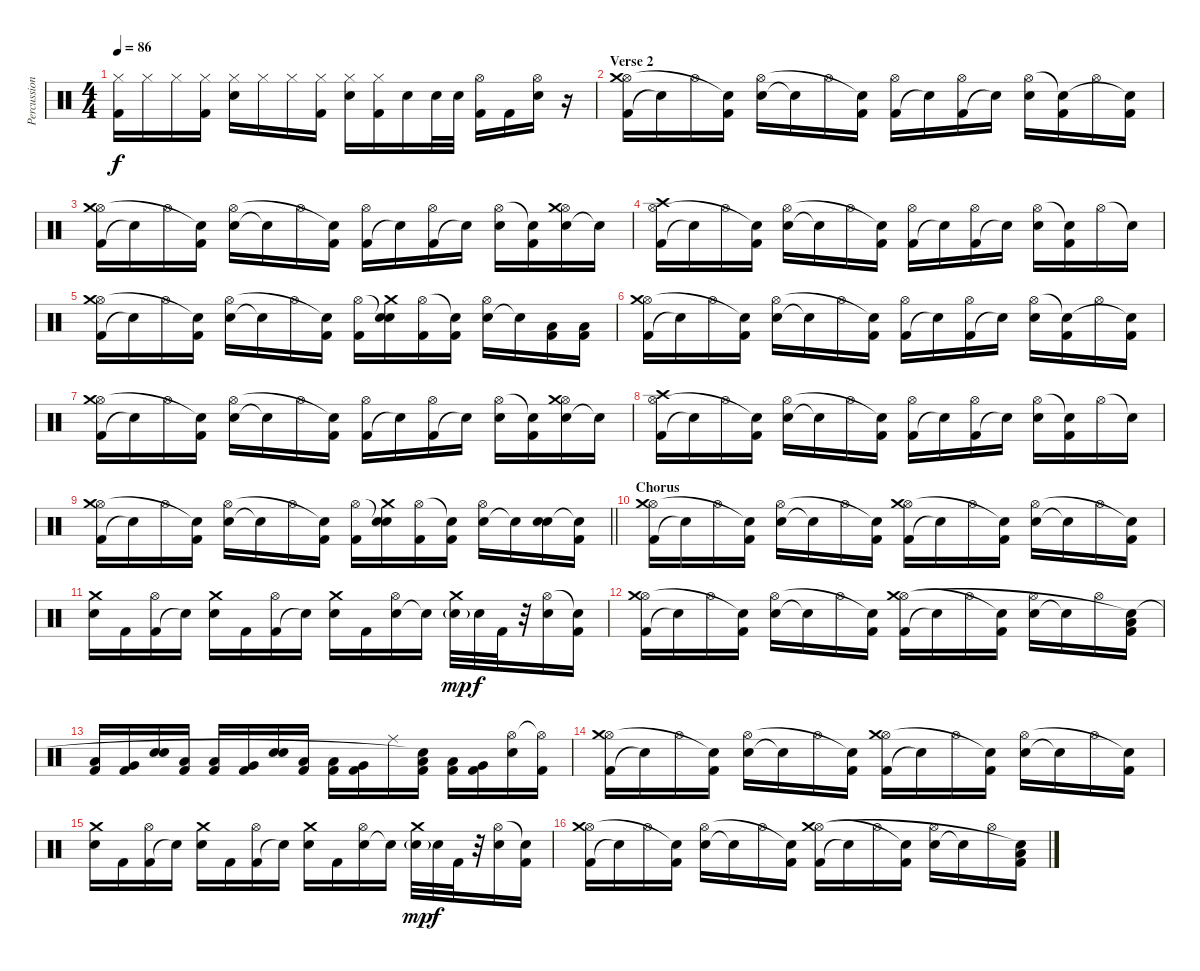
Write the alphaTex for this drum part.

\track ("Percussion" "Percussion") {instrument percussion}
\staff {score}
\articulation defaults
\ts (4 4)
\tempo 86
\clef neutral
\ks c
("Kick (hit) 2" "Hi-Hat (closed)").16{dy f} "Hi-Hat (closed)".16 "Hi-Hat (closed)".16 ("Kick (hit) 2" "Hi-Hat (closed)").16 ("Electric Snare (hit)" "Hi-Hat (closed)").16 "Hi-Hat (closed)".16 "Hi-Hat (closed)".16 ("Kick (hit) 2" "Hi-Hat (closed)").16 ("Electric Snare (hit)" "Hi-Hat (closed)").16 ("Kick (hit) 2" "Hi-Hat (closed)").16 "Electric Snare (hit)".16 "Electric Snare (hit)".32 "Electric Snare (hit)".32 ("Kick (hit) 2" "Hi-Hat (open)").16 "Kick (hit) 2".16 ("Electric Snare (hit)" "Hi-Hat (open)").16 r.16 |
\section ("" "Verse 2")
("Kick (hit) 2" "Hi-Hat (open)" "Crash medium (hit)").16 "Snare (hit)"{t}.16 "Hi-Hat (open)".16 ("Kick (hit) 2" "Snare (hit)"{t}).16 ("Electric Snare (hit)" "Hi-Hat (open)").16 "Snare (hit)"{t}.16 "Hi-Hat (open)".16 ("Kick (hit) 2" "Snare (hit)"{t}).16 ("Kick (hit) 2" "Hi-Hat (open)").16 "Snare (hit)"{t}.16 ("Kick (hit) 2" "Hi-Hat (open)").16 "Snare (hit)"{t}.16 ("Electric Snare (hit)" "Hi-Hat (open)").16 ("Kick (hit) 2" "Snare (hit)"{t}).16 "Hi-Hat (open)".16 ("Kick (hit) 2" "Snare (hit)"{t}).16 |
("Kick (hit) 2" "Hi-Hat (open)" "Crash medium (hit)").16 "Snare (hit)"{t}.16 "Hi-Hat (open)".16 ("Kick (hit) 2" "Snare (hit)"{t}).16 ("Electric Snare (hit)" "Hi-Hat (open)").16 "Snare (hit)"{t}.16 "Hi-Hat (open)".16 ("Kick (hit) 2" "Snare (hit)"{t}).16 ("Kick (hit) 2" "Hi-Hat (open)").16 "Snare (hit)"{t}.16 ("Kick (hit) 2" "Hi-Hat (open)").16 "Snare (hit)"{t}.16 ("Electric Snare (hit)" "Hi-Hat (open)").16 ("Kick (hit) 2" "Snare (hit)"{t}).16 ("Electric Snare (hit)" "Hi-Hat (open)" "Crash medium (hit)").16 "Snare (hit)"{t}.16 |
("Kick (hit) 2" "Hi-Hat (open)" "Crash high (hit)").16 "Snare (hit)"{t}.16 "Hi-Hat (open)".16 ("Kick (hit) 2" "Snare (hit)"{t}).16 ("Electric Snare (hit)" "Hi-Hat (open)").16 "Snare (hit)"{t}.16 "Hi-Hat (open)".16 ("Kick (hit) 2" "Snare (hit)"{t}).16 ("Kick (hit) 2" "Hi-Hat (open)").16 "Snare (hit)"{t}.16 ("Kick (hit) 2" "Hi-Hat (open)").16 "Snare (hit)"{t}.16 ("Electric Snare (hit)" "Hi-Hat (open)").16 ("Kick (hit) 2" "Snare (hit)"{t}).16 "Hi-Hat (open)".16 "Snare (hit)"{t}.16 |
("Kick (hit) 2" "Hi-Hat (open)" "Crash medium (hit)").16 "Snare (hit)"{t}.16 "Hi-Hat (open)".16 ("Kick (hit) 2" "Snare (hit)"{t}).16 ("Electric Snare (hit)" "Hi-Hat (open)").16 "Snare (hit)"{t}.16 "Hi-Hat (open)".16 ("Kick (hit) 2" "Snare (hit)"{t}).16 ("Kick (hit) 2" "Hi-Hat (open)").16 ("Electric Snare (hit)" "Snare (hit)"{t} "Crash medium (hit)").16 ("Kick (hit) 2" "Hi-Hat (open)").16 ("Kick (hit) 2" "Snare (hit)"{t}).16 ("Electric Snare (hit)" "Hi-Hat (open)").16 "Snare (hit)"{t}.16 ("Kick (hit) 2" "Low Tom (hit)").16 ("Kick (hit) 2" "Low Tom (hit)").16 |
("Kick (hit) 2" "Hi-Hat (open)" "Crash medium (hit)").16 "Snare (hit)"{t}.16 "Hi-Hat (open)".16 ("Kick (hit) 2" "Snare (hit)"{t}).16 ("Electric Snare (hit)" "Hi-Hat (open)").16 "Snare (hit)"{t}.16 "Hi-Hat (open)".16 ("Kick (hit) 2" "Snare (hit)"{t}).16 ("Kick (hit) 2" "Hi-Hat (open)").16 "Snare (hit)"{t}.16 ("Kick (hit) 2" "Hi-Hat (open)").16 "Snare (hit)"{t}.16 ("Electric Snare (hit)" "Hi-Hat (open)").16 ("Kick (hit) 2" "Snare (hit)"{t}).16 "Hi-Hat (open)".16 ("Kick (hit) 2" "Snare (hit)"{t}).16 |
("Kick (hit) 2" "Hi-Hat (open)" "Crash medium (hit)").16 "Snare (hit)"{t}.16 "Hi-Hat (open)".16 ("Kick (hit) 2" "Snare (hit)"{t}).16 ("Electric Snare (hit)" "Hi-Hat (open)").16 "Snare (hit)"{t}.16 "Hi-Hat (open)".16 ("Kick (hit) 2" "Snare (hit)"{t}).16 ("Kick (hit) 2" "Hi-Hat (open)").16 "Snare (hit)"{t}.16 ("Kick (hit) 2" "Hi-Hat (open)").16 "Snare (hit)"{t}.16 ("Electric Snare (hit)" "Hi-Hat (open)").16 ("Kick (hit) 2" "Snare (hit)"{t}).16 ("Electric Snare (hit)" "Hi-Hat (open)" "Crash medium (hit)").16 "Snare (hit)"{t}.16 |
("Kick (hit) 2" "Hi-Hat (open)" "Crash high (hit)").16 "Snare (hit)"{t}.16 "Hi-Hat (open)".16 ("Kick (hit) 2" "Snare (hit)"{t}).16 ("Electric Snare (hit)" "Hi-Hat (open)").16 "Snare (hit)"{t}.16 "Hi-Hat (open)".16 ("Kick (hit) 2" "Snare (hit)"{t}).16 ("Kick (hit) 2" "Hi-Hat (open)").16 "Snare (hit)"{t}.16 ("Kick (hit) 2" "Hi-Hat (open)").16 "Snare (hit)"{t}.16 ("Electric Snare (hit)" "Hi-Hat (open)").16 ("Kick (hit) 2" "Snare (hit)"{t}).16 "Hi-Hat (open)".16 "Snare (hit)"{t}.16 |
\barLineRight lightlight
("Kick (hit) 2" "Hi-Hat (open)" "Crash medium (hit)").16 "Snare (hit)"{t}.16 "Hi-Hat (open)".16 ("Kick (hit) 2" "Snare (hit)"{t}).16 ("Electric Snare (hit)" "Hi-Hat (open)").16 "Snare (hit)"{t}.16 "Hi-Hat (open)".16 ("Kick (hit) 2" "Snare (hit)"{t}).16 ("Kick (hit) 2" "Hi-Hat (open)").16 ("Electric Snare (hit)" "Snare (hit)"{t} "Crash medium (hit)").16 ("Kick (hit) 2" "Hi-Hat (open)").16 ("Kick (hit) 2" "Snare (hit)"{t}).16 ("Electric Snare (hit)" "Hi-Hat (open)").16 "Snare (hit)"{t}.16 ("Electric Snare (hit)" "Electric Snare (hit)").16 ("Kick (hit) 2" "Snare (hit)"{t}).16 |
\section ("" "Chorus")
("Kick (hit) 2" "Hi-Hat (open)" "Crash medium (hit)").16 "Snare (hit)"{t}.16 "Hi-Hat (open)".16 ("Kick (hit) 2" "Snare (hit)"{t}).16 ("Electric Snare (hit)" "Hi-Hat (open)").16 "Snare (hit)"{t}.16 "Hi-Hat (open)".16 ("Kick (hit) 2" "Snare (hit)"{t}).16 ("Kick (hit) 2" "Hi-Hat (open)" "Crash medium (hit)").16 "Snare (hit)"{t}.16 "Hi-Hat (open)".16 ("Kick (hit) 2" "Snare (hit)"{t}).16 ("Electric Snare (hit)" "Hi-Hat (open)").16 "Snare (hit)"{t}.16 "Hi-Hat (open)".16 ("Kick (hit) 2" "Snare (hit)"{t}).16 |
("Electric Snare (hit)" "Crash medium (hit)").16 "Kick (hit) 2".16 ("Kick (hit) 2" "Hi-Hat (open)").16 "Snare (hit)"{t}.16 ("Electric Snare (hit)" "Crash medium (hit)").16 "Kick (hit) 2".16 ("Kick (hit) 2" "Hi-Hat (open)").16 "Snare (hit)"{t}.16 ("Electric Snare (hit)" "Crash medium (hit)").16 "Kick (hit) 2".16 ("Electric Snare (hit)" "Hi-Hat (open)").16 "Snare (hit)"{t}.16 ("Electric Snare (hit)"{g} "Crash medium (hit)").32{dy mp} "Electric Snare (hit)".32{dy f} "Kick (hit) 2".32 r.32 ("Electric Snare (hit)" "Hi-Hat (open)").16 ("Kick (hit) 2" "Snare (hit)"{t}).16 |
("Kick (hit) 2" "Hi-Hat (open)" "Crash medium (hit)").16 "Snare (hit)"{t}.16 "Hi-Hat (open)".16 ("Kick (hit) 2" "Snare (hit)"{t}).16 ("Electric Snare (hit)" "Hi-Hat (open)").16 "Snare (hit)"{t}.16 "Hi-Hat (open)".16 ("Kick (hit) 2" "Snare (hit)"{t}).16 ("Kick (hit) 2" "Hi-Hat (open)" "Crash medium (hit)").16 "Snare (hit)"{t}.16 "Hi-Hat (open)".16 ("Kick (hit) 2" "Snare (hit)"{t}).16 ("Electric Snare (hit)" "Hi-Hat (open)").16 "Snare (hit)"{t}.16 "Hi-Hat (open)".16 ("Kick (hit) 2" "Low Tom (hit)" "Snare (hit)"{t}).16 |
("Kick (hit) 2" "Low Tom (hit)").16 ("Kick (hit) 2" "Very Low Tom (hit)").16 ("Electric Snare (hit)" "Electric Snare (hit)").16 ("Kick (hit) 2" "Low Tom (hit)").16 ("Kick (hit) 2" "Low Tom (hit)").16 ("Kick (hit) 2" "Very Low Tom (hit)").16 ("Electric Snare (hit)" "Electric Snare (hit)").16 ("Kick (hit) 2" "Low Tom (hit)").16 ("Kick (hit) 2" "Low Tom (hit)").16 ("Kick (hit) 2" "Very Low Tom (hit)").16 "Ride (middle)".16 ("Kick (hit) 2" "Low Tom (hit)" "Snare (hit)"{t}).16 ("Kick (hit) 2" "Low Tom (hit)").16 ("Kick (hit) 2" "Very Low Tom (hit)").16 ("Electric Snare (hit)" "Hi-Hat (open)").16 ("Kick (hit) 2" "Hi-Hat (open)"{t}).16 |
("Kick (hit) 2" "Hi-Hat (open)" "Crash medium (hit)").16 "Snare (hit)"{t}.16 "Hi-Hat (open)".16 ("Kick (hit) 2" "Snare (hit)"{t}).16 ("Electric Snare (hit)" "Hi-Hat (open)").16 "Snare (hit)"{t}.16 "Hi-Hat (open)".16 ("Kick (hit) 2" "Snare (hit)"{t}).16 ("Kick (hit) 2" "Hi-Hat (open)" "Crash medium (hit)").16 "Snare (hit)"{t}.16 "Hi-Hat (open)".16 ("Kick (hit) 2" "Snare (hit)"{t}).16 ("Electric Snare (hit)" "Hi-Hat (open)").16 "Snare (hit)"{t}.16 "Hi-Hat (open)".16 ("Kick (hit) 2" "Snare (hit)"{t}).16 |
("Electric Snare (hit)" "Crash medium (hit)").16 "Kick (hit) 2".16 ("Kick (hit) 2" "Hi-Hat (open)").16 "Snare (hit)"{t}.16 ("Electric Snare (hit)" "Crash medium (hit)").16 "Kick (hit) 2".16 ("Kick (hit) 2" "Hi-Hat (open)").16 "Snare (hit)"{t}.16 ("Electric Snare (hit)" "Crash medium (hit)").16 "Kick (hit) 2".16 ("Electric Snare (hit)" "Hi-Hat (open)").16 "Snare (hit)"{t}.16 ("Electric Snare (hit)"{g} "Crash medium (hit)").32{dy mp} "Electric Snare (hit)".32{dy f} "Kick (hit) 2".32 r.32 ("Electric Snare (hit)" "Hi-Hat (open)").16 ("Kick (hit) 2" "Snare (hit)"{t}).16 |
("Kick (hit) 2" "Hi-Hat (open)" "Crash medium (hit)").16 "Snare (hit)"{t}.16 "Hi-Hat (open)".16 ("Kick (hit) 2" "Snare (hit)"{t}).16 ("Electric Snare (hit)" "Hi-Hat (open)").16 "Snare (hit)"{t}.16 "Hi-Hat (open)".16 ("Kick (hit) 2" "Snare (hit)"{t}).16 ("Kick (hit) 2" "Hi-Hat (open)" "Crash medium (hit)").16 "Snare (hit)"{t}.16 "Hi-Hat (open)".16 ("Kick (hit) 2" "Snare (hit)"{t}).16 ("Electric Snare (hit)" "Hi-Hat (open)").16 "Snare (hit)"{t}.16 "Hi-Hat (open)".16 ("Kick (hit) 2" "Low Tom (hit)" "Snare (hit)"{t}).16
